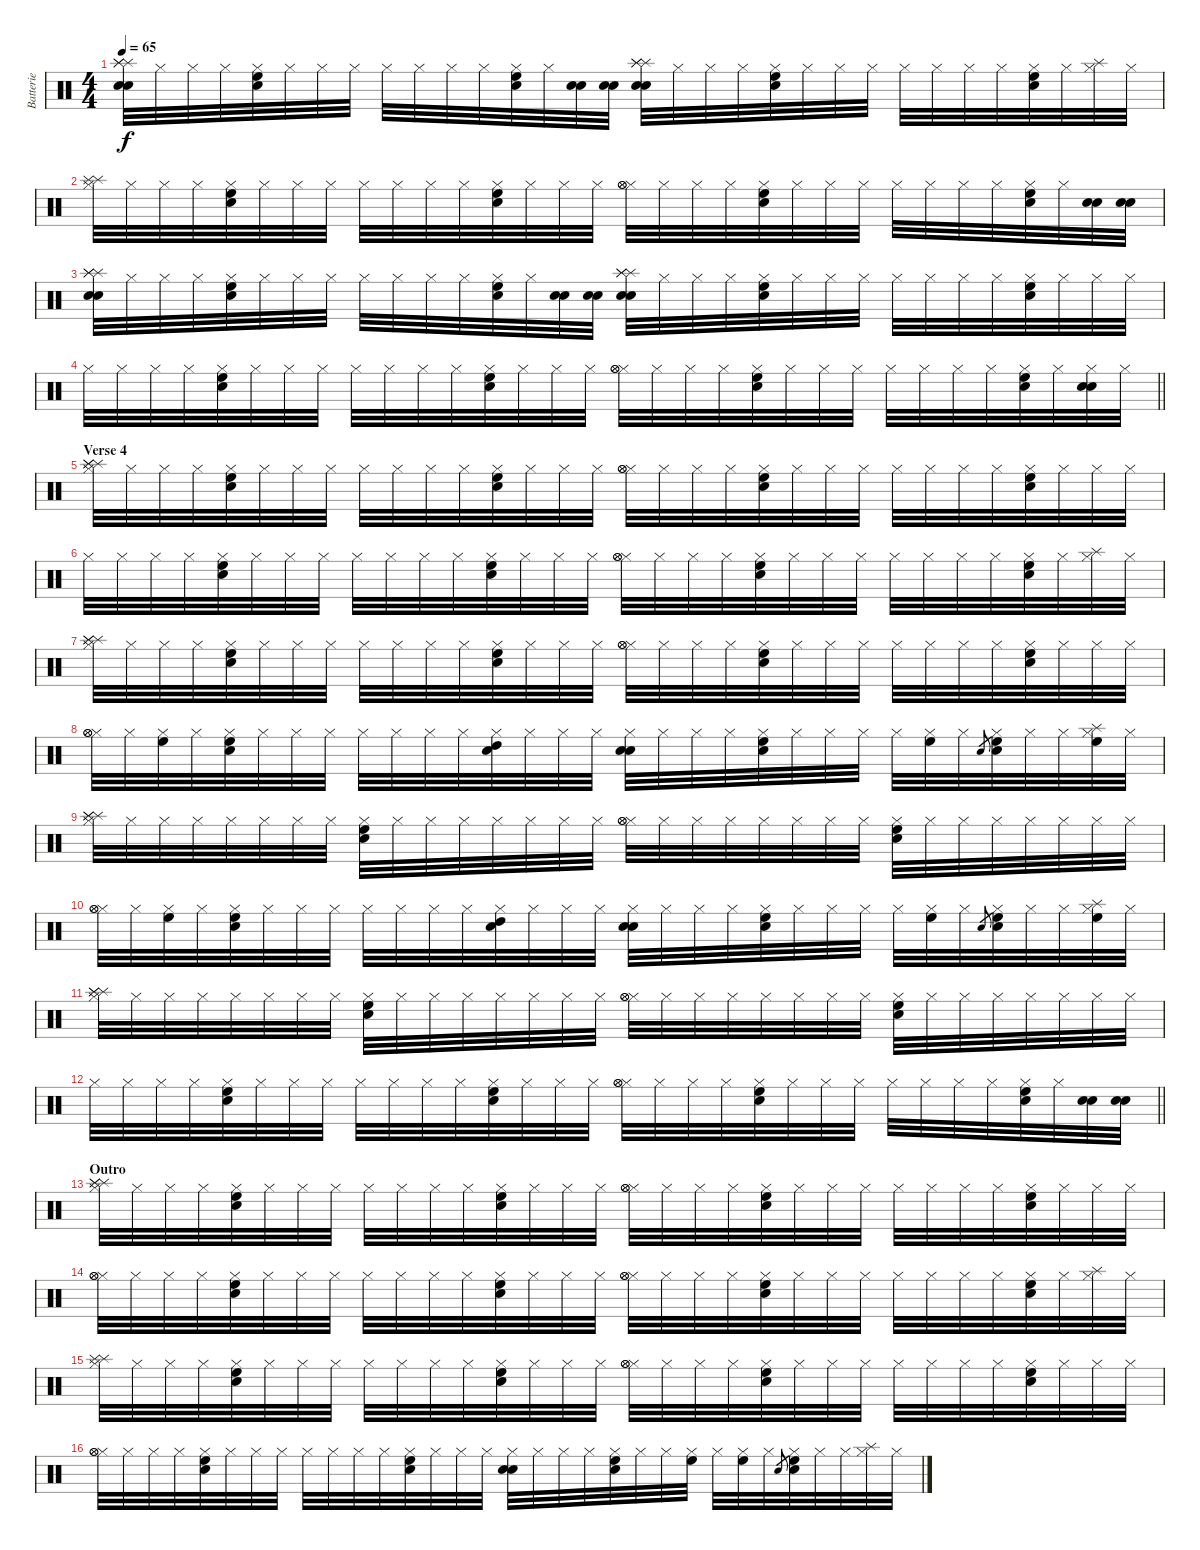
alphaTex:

\track ("Batterie" "Batterie") {instrument percussion}
\staff {score}
\articulation defaults
\ts (4 4)
\tempo 65
\clef neutral
\ks c
("Snare (hit) 2" "Snare (hit) 2" "Splash (hit)" "Splash (hit)" "Splash (hit)").32{dy f} "Hi-Hat (closed)".32 "Hi-Hat (closed)".32 "Hi-Hat (closed)".32 ("Hi-Hat (closed)" "Snare (hit) 2" "High Floor Tom (hit)").32 "Hi-Hat (closed)".32 "Hi-Hat (closed)".32 "Hi-Hat (closed)".32 "Hi-Hat (closed)".32 "Hi-Hat (closed)".32 "Hi-Hat (closed)".32 "Hi-Hat (closed)".32 ("Hi-Hat (closed)" "Snare (hit) 2" "High Floor Tom (hit)").32 "Hi-Hat (closed)".32 ("Snare (hit) 2" "Snare (hit) 2").32 ("Snare (hit) 2" "Snare (hit) 2").32 ("Snare (hit) 2" "Snare (hit) 2" "Splash (hit)" "Splash (hit)" "Splash (hit)").32 "Hi-Hat (closed)".32 "Hi-Hat (closed)".32 "Hi-Hat (closed)".32 ("Hi-Hat (closed)" "Snare (hit) 2" "High Floor Tom (hit)").32 "Hi-Hat (closed)".32 "Hi-Hat (closed)".32 "Hi-Hat (closed)".32 "Hi-Hat (closed)".32 "Hi-Hat (closed)".32 "Hi-Hat (closed)".32 "Hi-Hat (closed)".32 ("Hi-Hat (closed)" "Snare (hit) 2" "High Floor Tom (hit)").32 "Hi-Hat (closed)".32 ("Hi-Hat (closed)" "Splash (hit)").32 "Hi-Hat (closed)".32 |
("Hi-Hat (closed)" "Splash (hit)" "Splash (hit)").32 "Hi-Hat (closed)".32 "Hi-Hat (closed)".32 "Hi-Hat (closed)".32 ("Hi-Hat (closed)" "Snare (hit) 2" "High Floor Tom (hit)").32 "Hi-Hat (closed)".32 "Hi-Hat (closed)".32 "Hi-Hat (closed)".32 "Hi-Hat (closed)".32 "Hi-Hat (closed)".32 "Hi-Hat (closed)".32 "Hi-Hat (closed)".32 ("Hi-Hat (closed)" "Snare (hit) 2" "High Floor Tom (hit)").32 "Hi-Hat (closed)".32 "Hi-Hat (closed)".32 "Hi-Hat (closed)".32 ("Hi-Hat (closed)" "Hi-Hat (open)" "Hi-Hat (open)").32 "Hi-Hat (closed)".32 "Hi-Hat (closed)".32 "Hi-Hat (closed)".32 ("Hi-Hat (closed)" "Snare (hit) 2" "High Floor Tom (hit)").32 "Hi-Hat (closed)".32 "Hi-Hat (closed)".32 "Hi-Hat (closed)".32 "Hi-Hat (closed)".32 "Hi-Hat (closed)".32 "Hi-Hat (closed)".32 "Hi-Hat (closed)".32 ("Hi-Hat (closed)" "Snare (hit) 2" "High Floor Tom (hit)").32 "Hi-Hat (closed)".32 ("Snare (hit) 2" "Snare (hit) 2").32 ("Snare (hit) 2" "Snare (hit) 2").32 |
("Snare (hit) 2" "Snare (hit) 2" "Splash (hit)" "Splash (hit)" "Splash (hit)").32 "Hi-Hat (closed)".32 "Hi-Hat (closed)".32 "Hi-Hat (closed)".32 ("Hi-Hat (closed)" "Snare (hit) 2" "High Floor Tom (hit)").32 "Hi-Hat (closed)".32 "Hi-Hat (closed)".32 "Hi-Hat (closed)".32 "Hi-Hat (closed)".32 "Hi-Hat (closed)".32 "Hi-Hat (closed)".32 "Hi-Hat (closed)".32 ("Hi-Hat (closed)" "Snare (hit) 2" "High Floor Tom (hit)").32 "Hi-Hat (closed)".32 ("Snare (hit) 2" "Snare (hit) 2").32 ("Snare (hit) 2" "Snare (hit) 2").32 ("Snare (hit) 2" "Snare (hit) 2" "Splash (hit)" "Splash (hit)" "Splash (hit)").32 "Hi-Hat (closed)".32 "Hi-Hat (closed)".32 "Hi-Hat (closed)".32 ("Hi-Hat (closed)" "Snare (hit) 2" "High Floor Tom (hit)").32 "Hi-Hat (closed)".32 "Hi-Hat (closed)".32 "Hi-Hat (closed)".32 "Hi-Hat (closed)".32 "Hi-Hat (closed)".32 "Hi-Hat (closed)".32 "Hi-Hat (closed)".32 ("Hi-Hat (closed)" "Snare (hit) 2" "High Floor Tom (hit)").32 "Hi-Hat (closed)".32 "Hi-Hat (closed)".32 "Hi-Hat (closed)".32 |
\barLineRight lightlight "Hi-Hat (closed)".32 "Hi-Hat (closed)".32 "Hi-Hat (closed)".32 "Hi-Hat (closed)".32
("Hi-Hat (closed)" "Snare (hit) 2" "High Floor Tom (hit)").32 "Hi-Hat (closed)".32 "Hi-Hat (closed)".32 "Hi-Hat (closed)".32 "Hi-Hat (closed)".32 "Hi-Hat (closed)".32 "Hi-Hat (closed)".32 "Hi-Hat (closed)".32 ("Hi-Hat (closed)" "Snare (hit) 2" "High Floor Tom (hit)").32 "Hi-Hat (closed)".32 "Hi-Hat (closed)".32 "Hi-Hat (closed)".32 ("Hi-Hat (closed)" "Hi-Hat (open)" "Hi-Hat (open)").32 "Hi-Hat (closed)".32 "Hi-Hat (closed)".32 "Hi-Hat (closed)".32 ("Hi-Hat (closed)" "Snare (hit) 2" "High Floor Tom (hit)").32 "Hi-Hat (closed)".32 "Hi-Hat (closed)".32 "Hi-Hat (closed)".32 "Hi-Hat (closed)".32 "Hi-Hat (closed)".32 "Hi-Hat (closed)".32 "Hi-Hat (closed)".32 ("Hi-Hat (closed)" "Snare (hit) 2" "High Floor Tom (hit)").32 "Hi-Hat (closed)".32 ("Hi-Hat (closed)" "Snare (hit) 2" "Snare (hit) 2").32 "Hi-Hat (closed)".32 |
\section ("" "Verse 4")
("Hi-Hat (closed)" "Splash (hit)" "Splash (hit)" "Splash (hit)").32 "Hi-Hat (closed)".32 "Hi-Hat (closed)".32 "Hi-Hat (closed)".32 ("Hi-Hat (closed)" "Snare (hit) 2" "High Floor Tom (hit)").32 "Hi-Hat (closed)".32 "Hi-Hat (closed)".32 "Hi-Hat (closed)".32 "Hi-Hat (closed)".32 "Hi-Hat (closed)".32 "Hi-Hat (closed)".32 "Hi-Hat (closed)".32 ("Hi-Hat (closed)" "Snare (hit) 2" "High Floor Tom (hit)").32 "Hi-Hat (closed)".32 "Hi-Hat (closed)".32 "Hi-Hat (closed)".32 ("Hi-Hat (closed)" "Hi-Hat (open)" "Hi-Hat (open)").32 "Hi-Hat (closed)".32 "Hi-Hat (closed)".32 "Hi-Hat (closed)".32 ("Hi-Hat (closed)" "Snare (hit) 2" "High Floor Tom (hit)").32 "Hi-Hat (closed)".32 "Hi-Hat (closed)".32 "Hi-Hat (closed)".32 "Hi-Hat (closed)".32 "Hi-Hat (closed)".32 "Hi-Hat (closed)".32 "Hi-Hat (closed)".32 ("Hi-Hat (closed)" "Snare (hit) 2" "High Floor Tom (hit)").32 "Hi-Hat (closed)".32 "Hi-Hat (closed)".32 "Hi-Hat (closed)".32 |
"Hi-Hat (closed)".32 "Hi-Hat (closed)".32 "Hi-Hat (closed)".32 "Hi-Hat (closed)".32 ("Hi-Hat (closed)" "Snare (hit) 2" "High Floor Tom (hit)").32 "Hi-Hat (closed)".32 "Hi-Hat (closed)".32 "Hi-Hat (closed)".32 "Hi-Hat (closed)".32 "Hi-Hat (closed)".32 "Hi-Hat (closed)".32 "Hi-Hat (closed)".32 ("Hi-Hat (closed)" "Snare (hit) 2" "High Floor Tom (hit)").32 "Hi-Hat (closed)".32 "Hi-Hat (closed)".32 "Hi-Hat (closed)".32 ("Hi-Hat (closed)" "Hi-Hat (open)" "Hi-Hat (open)").32 "Hi-Hat (closed)".32 "Hi-Hat (closed)".32 "Hi-Hat (closed)".32 ("Hi-Hat (closed)" "Snare (hit) 2" "High Floor Tom (hit)").32 "Hi-Hat (closed)".32 "Hi-Hat (closed)".32 "Hi-Hat (closed)".32 "Hi-Hat (closed)".32 "Hi-Hat (closed)".32 "Hi-Hat (closed)".32 "Hi-Hat (closed)".32 ("Hi-Hat (closed)" "Snare (hit) 2" "High Floor Tom (hit)").32 "Hi-Hat (closed)".32 ("Hi-Hat (closed)" "Splash (hit)").32 "Hi-Hat (closed)".32 |
("Hi-Hat (closed)" "Splash (hit)" "Splash (hit)" "Splash (hit)").32 "Hi-Hat (closed)".32 "Hi-Hat (closed)".32 "Hi-Hat (closed)".32 ("Hi-Hat (closed)" "Snare (hit) 2" "High Floor Tom (hit)").32 "Hi-Hat (closed)".32 "Hi-Hat (closed)".32 "Hi-Hat (closed)".32 "Hi-Hat (closed)".32 "Hi-Hat (closed)".32 "Hi-Hat (closed)".32 "Hi-Hat (closed)".32 ("Hi-Hat (closed)" "Snare (hit) 2" "High Floor Tom (hit)").32 "Hi-Hat (closed)".32 "Hi-Hat (closed)".32 "Hi-Hat (closed)".32 ("Hi-Hat (closed)" "Hi-Hat (open)" "Hi-Hat (open)").32 "Hi-Hat (closed)".32 "Hi-Hat (closed)".32 "Hi-Hat (closed)".32 ("Hi-Hat (closed)" "Snare (hit) 2" "High Floor Tom (hit)").32 "Hi-Hat (closed)".32 "Hi-Hat (closed)".32 "Hi-Hat (closed)".32 "Hi-Hat (closed)".32 "Hi-Hat (closed)".32 "Hi-Hat (closed)".32 "Hi-Hat (closed)".32 ("Hi-Hat (closed)" "Snare (hit) 2" "High Floor Tom (hit)").32 "Hi-Hat (closed)".32 "Hi-Hat (closed)".32 "Hi-Hat (closed)".32 |
("Hi-Hat (closed)" "Hi-Hat (open)" "Hi-Hat (open)").32 "Hi-Hat (closed)".32 ("Hi-Hat (closed)" "High Floor Tom (hit)").32 "Hi-Hat (closed)".32 ("Hi-Hat (closed)" "Snare (hit) 2" "High Floor Tom (hit)").32 "Hi-Hat (closed)".32 "Hi-Hat (closed)".32 "Hi-Hat (closed)".32 "Hi-Hat (closed)".32 "Hi-Hat (closed)".32 "Hi-Hat (closed)".32 "Hi-Hat (closed)".32 ("Hi-Hat (closed)" "Snare (hit) 2" "High Tom (hit)").32 "Hi-Hat (closed)".32 "Hi-Hat (closed)".32 "Hi-Hat (closed)".32 ("Hi-Hat (closed)" "Snare (hit) 2" "Snare (hit) 2").32 "Hi-Hat (closed)".32 "Hi-Hat (closed)".32 "Hi-Hat (closed)".32 ("Hi-Hat (closed)" "Snare (hit) 2" "High Floor Tom (hit)").32 "Hi-Hat (closed)".32 "Hi-Hat (closed)".32 "Hi-Hat (closed)".32 "Hi-Hat (closed)".32 ("Hi-Hat (closed)" "High Floor Tom (hit)").32 "Hi-Hat (closed)".32 "Snare (hit) 2".8{gr} ("Hi-Hat (closed)" "Snare (hit) 2" "High Floor Tom (hit)").32 "Hi-Hat (closed)".32 "Hi-Hat (closed)".32 ("Hi-Hat (closed)" "Splash (hit)" "High Floor Tom (hit)").32 "Hi-Hat (closed)".32 |
("Hi-Hat (closed)" "Splash (hit)" "Splash (hit)" "Splash (hit)").32 "Hi-Hat (closed)".32 "Hi-Hat (closed)".32 "Hi-Hat (closed)".32 "Hi-Hat (closed)".32 "Hi-Hat (closed)".32 "Hi-Hat (closed)".32 "Hi-Hat (closed)".32 ("Hi-Hat (closed)" "Snare (hit) 2" "High Floor Tom (hit)").32 "Hi-Hat (closed)".32 "Hi-Hat (closed)".32 "Hi-Hat (closed)".32 "Hi-Hat (closed)".32 "Hi-Hat (closed)".32 "Hi-Hat (closed)".32 "Hi-Hat (closed)".32 ("Hi-Hat (closed)" "Hi-Hat (open)" "Hi-Hat (open)").32 "Hi-Hat (closed)".32 "Hi-Hat (closed)".32 "Hi-Hat (closed)".32 "Hi-Hat (closed)".32 "Hi-Hat (closed)".32 "Hi-Hat (closed)".32 "Hi-Hat (closed)".32 ("Hi-Hat (closed)" "Snare (hit) 2" "High Floor Tom (hit)").32 "Hi-Hat (closed)".32 "Hi-Hat (closed)".32 "Hi-Hat (closed)".32 "Hi-Hat (closed)".32 "Hi-Hat (closed)".32 "Hi-Hat (closed)".32 "Hi-Hat (closed)".32 |
("Hi-Hat (closed)" "Hi-Hat (open)" "Hi-Hat (open)").32 "Hi-Hat (closed)".32 ("Hi-Hat (closed)" "High Floor Tom (hit)").32 "Hi-Hat (closed)".32 ("Hi-Hat (closed)" "Snare (hit) 2" "High Floor Tom (hit)").32 "Hi-Hat (closed)".32 "Hi-Hat (closed)".32 "Hi-Hat (closed)".32 "Hi-Hat (closed)".32 "Hi-Hat (closed)".32 "Hi-Hat (closed)".32 "Hi-Hat (closed)".32 ("Hi-Hat (closed)" "Snare (hit) 2" "High Tom (hit)").32 "Hi-Hat (closed)".32 "Hi-Hat (closed)".32 "Hi-Hat (closed)".32 ("Hi-Hat (closed)" "Snare (hit) 2" "Snare (hit) 2").32 "Hi-Hat (closed)".32 "Hi-Hat (closed)".32 "Hi-Hat (closed)".32 ("Hi-Hat (closed)" "Snare (hit) 2" "High Floor Tom (hit)").32 "Hi-Hat (closed)".32 "Hi-Hat (closed)".32 "Hi-Hat (closed)".32 "Hi-Hat (closed)".32 ("Hi-Hat (closed)" "High Floor Tom (hit)").32 "Hi-Hat (closed)".32 "Snare (hit) 2".8{gr} ("Hi-Hat (closed)" "Snare (hit) 2" "High Floor Tom (hit)").32 "Hi-Hat (closed)".32 "Hi-Hat (closed)".32 ("Hi-Hat (closed)" "Splash (hit)" "High Floor Tom (hit)").32 "Hi-Hat (closed)".32 |
("Hi-Hat (closed)" "Splash (hit)" "Splash (hit)" "Splash (hit)").32 "Hi-Hat (closed)".32 "Hi-Hat (closed)".32 "Hi-Hat (closed)".32 "Hi-Hat (closed)".32 "Hi-Hat (closed)".32 "Hi-Hat (closed)".32 "Hi-Hat (closed)".32 ("Hi-Hat (closed)" "Snare (hit) 2" "High Floor Tom (hit)").32 "Hi-Hat (closed)".32 "Hi-Hat (closed)".32 "Hi-Hat (closed)".32 "Hi-Hat (closed)".32 "Hi-Hat (closed)".32 "Hi-Hat (closed)".32 "Hi-Hat (closed)".32 ("Hi-Hat (closed)" "Hi-Hat (open)" "Hi-Hat (open)").32 "Hi-Hat (closed)".32 "Hi-Hat (closed)".32 "Hi-Hat (closed)".32 "Hi-Hat (closed)".32 "Hi-Hat (closed)".32 "Hi-Hat (closed)".32 "Hi-Hat (closed)".32 ("Hi-Hat (closed)" "Snare (hit) 2" "High Floor Tom (hit)").32 "Hi-Hat (closed)".32 "Hi-Hat (closed)".32 "Hi-Hat (closed)".32 "Hi-Hat (closed)".32 "Hi-Hat (closed)".32 "Hi-Hat (closed)".32 "Hi-Hat (closed)".32 |
\barLineRight lightlight "Hi-Hat (closed)".32 "Hi-Hat (closed)".32 "Hi-Hat (closed)".32 "Hi-Hat (closed)".32
("Hi-Hat (closed)" "Snare (hit) 2" "High Floor Tom (hit)").32 "Hi-Hat (closed)".32 "Hi-Hat (closed)".32 "Hi-Hat (closed)".32 "Hi-Hat (closed)".32 "Hi-Hat (closed)".32 "Hi-Hat (closed)".32 "Hi-Hat (closed)".32 ("Hi-Hat (closed)" "Snare (hit) 2" "High Floor Tom (hit)").32 "Hi-Hat (closed)".32 "Hi-Hat (closed)".32 "Hi-Hat (closed)".32 ("Hi-Hat (closed)" "Hi-Hat (open)" "Hi-Hat (open)").32 "Hi-Hat (closed)".32 "Hi-Hat (closed)".32 "Hi-Hat (closed)".32 ("Hi-Hat (closed)" "Snare (hit) 2" "High Floor Tom (hit)").32 "Hi-Hat (closed)".32 "Hi-Hat (closed)".32 "Hi-Hat (closed)".32 "Hi-Hat (closed)".32 "Hi-Hat (closed)".32 "Hi-Hat (closed)".32 "Hi-Hat (closed)".32 ("Hi-Hat (closed)" "Snare (hit) 2" "High Floor Tom (hit)").32 "Hi-Hat (closed)".32 ("Snare (hit) 2" "Snare (hit) 2").32 ("Snare (hit) 2" "Snare (hit) 2").32 |
\section ("" "Outro")
("Hi-Hat (closed)" "Splash (hit)" "Splash (hit)" "Splash (hit)").32 "Hi-Hat (closed)".32 "Hi-Hat (closed)".32 "Hi-Hat (closed)".32 ("Hi-Hat (closed)" "Snare (hit) 2" "High Floor Tom (hit)").32 "Hi-Hat (closed)".32 "Hi-Hat (closed)".32 "Hi-Hat (closed)".32 "Hi-Hat (closed)".32 "Hi-Hat (closed)".32 "Hi-Hat (closed)".32 "Hi-Hat (closed)".32 ("Hi-Hat (closed)" "Snare (hit) 2" "High Floor Tom (hit)").32 "Hi-Hat (closed)".32 "Hi-Hat (closed)".32 "Hi-Hat (closed)".32 ("Hi-Hat (closed)" "Hi-Hat (open)" "Hi-Hat (open)").32 "Hi-Hat (closed)".32 "Hi-Hat (closed)".32 "Hi-Hat (closed)".32 ("Hi-Hat (closed)" "Snare (hit) 2" "High Floor Tom (hit)").32 "Hi-Hat (closed)".32 "Hi-Hat (closed)".32 "Hi-Hat (closed)".32 "Hi-Hat (closed)".32 "Hi-Hat (closed)".32 "Hi-Hat (closed)".32 "Hi-Hat (closed)".32 ("Hi-Hat (closed)" "Snare (hit) 2" "High Floor Tom (hit)").32 "Hi-Hat (closed)".32 "Hi-Hat (closed)".32 "Hi-Hat (closed)".32 |
("Hi-Hat (closed)" "Hi-Hat (open)" "Hi-Hat (open)").32 "Hi-Hat (closed)".32 "Hi-Hat (closed)".32 "Hi-Hat (closed)".32 ("Hi-Hat (closed)" "Snare (hit) 2" "High Floor Tom (hit)").32 "Hi-Hat (closed)".32 "Hi-Hat (closed)".32 "Hi-Hat (closed)".32 "Hi-Hat (closed)".32 "Hi-Hat (closed)".32 "Hi-Hat (closed)".32 "Hi-Hat (closed)".32 ("Hi-Hat (closed)" "Snare (hit) 2" "High Floor Tom (hit)").32 "Hi-Hat (closed)".32 "Hi-Hat (closed)".32 "Hi-Hat (closed)".32 ("Hi-Hat (closed)" "Hi-Hat (open)" "Hi-Hat (open)").32 "Hi-Hat (closed)".32 "Hi-Hat (closed)".32 "Hi-Hat (closed)".32 ("Hi-Hat (closed)" "Snare (hit) 2" "High Floor Tom (hit)").32 "Hi-Hat (closed)".32 "Hi-Hat (closed)".32 "Hi-Hat (closed)".32 "Hi-Hat (closed)".32 "Hi-Hat (closed)".32 "Hi-Hat (closed)".32 "Hi-Hat (closed)".32 ("Hi-Hat (closed)" "Snare (hit) 2" "High Floor Tom (hit)").32 "Hi-Hat (closed)".32 ("Hi-Hat (closed)" "Splash (hit)").32 "Hi-Hat (closed)".32 |
("Hi-Hat (closed)" "Splash (hit)" "Splash (hit)").32{volume 13} "Hi-Hat (closed)".32 "Hi-Hat (closed)".32 "Hi-Hat (closed)".32 ("Hi-Hat (closed)" "Snare (hit) 2" "High Floor Tom (hit)").32 "Hi-Hat (closed)".32 "Hi-Hat (closed)".32 "Hi-Hat (closed)".32 "Hi-Hat (closed)".32 "Hi-Hat (closed)".32 "Hi-Hat (closed)".32 "Hi-Hat (closed)".32 ("Hi-Hat (closed)" "Snare (hit) 2" "High Floor Tom (hit)").32 "Hi-Hat (closed)".32 "Hi-Hat (closed)".32 "Hi-Hat (closed)".32 ("Hi-Hat (closed)" "Hi-Hat (open)" "Hi-Hat (open)").32 "Hi-Hat (closed)".32 "Hi-Hat (closed)".32 "Hi-Hat (closed)".32 ("Hi-Hat (closed)" "Snare (hit) 2" "High Floor Tom (hit)").32 "Hi-Hat (closed)".32 "Hi-Hat (closed)".32 "Hi-Hat (closed)".32 "Hi-Hat (closed)".32 "Hi-Hat (closed)".32 "Hi-Hat (closed)".32 "Hi-Hat (closed)".32 ("Hi-Hat (closed)" "Snare (hit) 2" "High Floor Tom (hit)").32 "Hi-Hat (closed)".32 "Hi-Hat (closed)".32 "Hi-Hat (closed)".32 |
("Hi-Hat (closed)" "Hi-Hat (open)" "Hi-Hat (open)").32{volume 10} "Hi-Hat (closed)".32 "Hi-Hat (closed)".32 "Hi-Hat (closed)".32 ("Hi-Hat (closed)" "Snare (hit) 2" "High Floor Tom (hit)").32 "Hi-Hat (closed)".32 "Hi-Hat (closed)".32 "Hi-Hat (closed)".32 "Hi-Hat (closed)".32 "Hi-Hat (closed)".32 "Hi-Hat (closed)".32 "Hi-Hat (closed)".32 ("Hi-Hat (closed)" "Snare (hit) 2" "High Floor Tom (hit)").32 "Hi-Hat (closed)".32 "Hi-Hat (closed)".32 "Hi-Hat (closed)".32 ("Hi-Hat (closed)" "Snare (hit) 2" "Snare (hit) 2").32 "Hi-Hat (closed)".32 "Hi-Hat (closed)".32 "Hi-Hat (closed)".32 ("Hi-Hat (closed)" "Snare (hit) 2" "High Floor Tom (hit)").32 "Hi-Hat (closed)".32 "Hi-Hat (closed)".32 ("Hi-Hat (closed)" "High Floor Tom (hit)").32 "Hi-Hat (closed)".32 ("Hi-Hat (closed)" "High Floor Tom (hit)").32 "Hi-Hat (closed)".32 "Snare (hit) 2".8{gr} ("Hi-Hat (closed)" "Snare (hit) 2" "High Floor Tom (hit)").32 "Hi-Hat (closed)".32 "Hi-Hat (closed)".32 ("Hi-Hat (closed)" "Splash (hit)").32 "Hi-Hat (closed)".32
